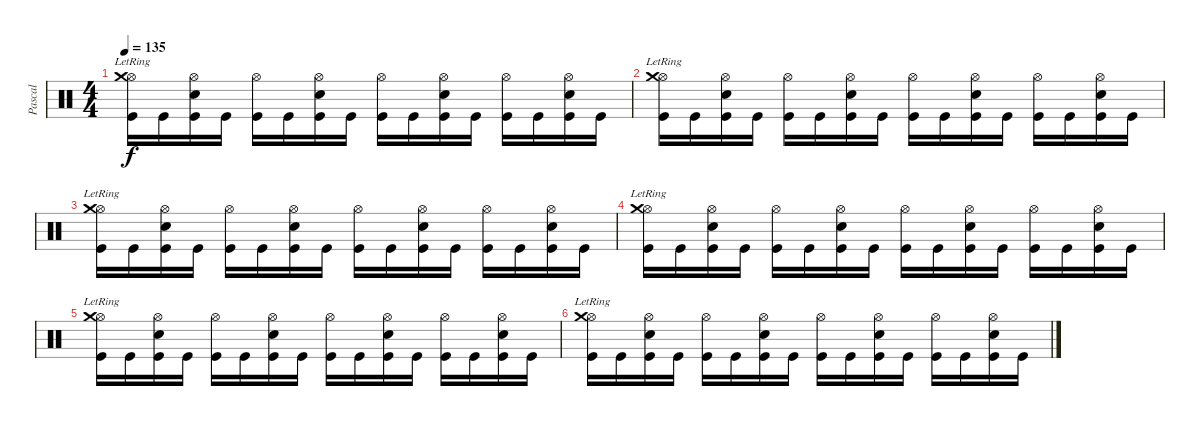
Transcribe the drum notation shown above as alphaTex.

\track ("Pascal" "Pascal") {instrument percussion}
\staff {score}
\articulation defaults
\ts (4 4)
\tempo 135
\clef neutral
\ks c
("Hi-Hat (open)" "Crash medium (hit)"{lr} "Kick (hit)").16{dy f} "Kick (hit)".16 ("Hi-Hat (open)" "Snare (hit) 2" "Kick (hit)").16 "Kick (hit)".16 ("Hi-Hat (open)" "Kick (hit)").16 "Kick (hit)".16 ("Hi-Hat (open)" "Snare (hit) 2" "Kick (hit)").16 "Kick (hit)".16 ("Hi-Hat (open)" "Kick (hit)").16 "Kick (hit)".16 ("Hi-Hat (open)" "Snare (hit) 2" "Kick (hit)").16 "Kick (hit)".16 ("Hi-Hat (open)" "Kick (hit)").16 "Kick (hit)".16 ("Hi-Hat (open)" "Snare (hit) 2" "Kick (hit)").16 "Kick (hit)".16 |
("Hi-Hat (open)" "Crash medium (hit)"{lr} "Kick (hit)").16 "Kick (hit)".16 ("Hi-Hat (open)" "Snare (hit) 2" "Kick (hit)").16 "Kick (hit)".16 ("Hi-Hat (open)" "Kick (hit)").16 "Kick (hit)".16 ("Hi-Hat (open)" "Snare (hit) 2" "Kick (hit)").16 "Kick (hit)".16 ("Hi-Hat (open)" "Kick (hit)").16 "Kick (hit)".16 ("Hi-Hat (open)" "Snare (hit) 2" "Kick (hit)").16 "Kick (hit)".16 ("Hi-Hat (open)" "Kick (hit)").16 "Kick (hit)".16 ("Hi-Hat (open)" "Snare (hit) 2" "Kick (hit)").16 "Kick (hit)".16 |
("Hi-Hat (open)" "Crash medium (hit)"{lr} "Kick (hit)").16 "Kick (hit)".16 ("Hi-Hat (open)" "Snare (hit) 2" "Kick (hit)").16 "Kick (hit)".16 ("Hi-Hat (open)" "Kick (hit)").16 "Kick (hit)".16 ("Hi-Hat (open)" "Snare (hit) 2" "Kick (hit)").16 "Kick (hit)".16 ("Hi-Hat (open)" "Kick (hit)").16 "Kick (hit)".16 ("Hi-Hat (open)" "Snare (hit) 2" "Kick (hit)").16 "Kick (hit)".16 ("Hi-Hat (open)" "Kick (hit)").16 "Kick (hit)".16 ("Hi-Hat (open)" "Snare (hit) 2" "Kick (hit)").16 "Kick (hit)".16 |
("Hi-Hat (open)" "Crash medium (hit)"{lr} "Kick (hit)").16 "Kick (hit)".16 ("Hi-Hat (open)" "Snare (hit) 2" "Kick (hit)").16 "Kick (hit)".16 ("Hi-Hat (open)" "Kick (hit)").16 "Kick (hit)".16 ("Hi-Hat (open)" "Snare (hit) 2" "Kick (hit)").16 "Kick (hit)".16 ("Hi-Hat (open)" "Kick (hit)").16 "Kick (hit)".16 ("Hi-Hat (open)" "Snare (hit) 2" "Kick (hit)").16 "Kick (hit)".16 ("Hi-Hat (open)" "Kick (hit)").16 "Kick (hit)".16 ("Hi-Hat (open)" "Snare (hit) 2" "Kick (hit)").16 "Kick (hit)".16 |
("Hi-Hat (open)" "Crash medium (hit)"{lr} "Kick (hit)").16 "Kick (hit)".16 ("Hi-Hat (open)" "Snare (hit) 2" "Kick (hit)").16 "Kick (hit)".16 ("Hi-Hat (open)" "Kick (hit)").16 "Kick (hit)".16 ("Hi-Hat (open)" "Snare (hit) 2" "Kick (hit)").16 "Kick (hit)".16 ("Hi-Hat (open)" "Kick (hit)").16 "Kick (hit)".16 ("Hi-Hat (open)" "Snare (hit) 2" "Kick (hit)").16 "Kick (hit)".16 ("Hi-Hat (open)" "Kick (hit)").16 "Kick (hit)".16 ("Hi-Hat (open)" "Snare (hit) 2" "Kick (hit)").16 "Kick (hit)".16 |
("Hi-Hat (open)" "Crash medium (hit)"{lr} "Kick (hit)").16 "Kick (hit)".16 ("Hi-Hat (open)" "Snare (hit) 2" "Kick (hit)").16 "Kick (hit)".16 ("Hi-Hat (open)" "Kick (hit)").16 "Kick (hit)".16 ("Hi-Hat (open)" "Snare (hit) 2" "Kick (hit)").16 "Kick (hit)".16 ("Hi-Hat (open)" "Kick (hit)").16 "Kick (hit)".16 ("Hi-Hat (open)" "Snare (hit) 2" "Kick (hit)").16 "Kick (hit)".16 ("Hi-Hat (open)" "Kick (hit)").16 "Kick (hit)".16 ("Hi-Hat (open)" "Snare (hit) 2" "Kick (hit)").16 "Kick (hit)".16
